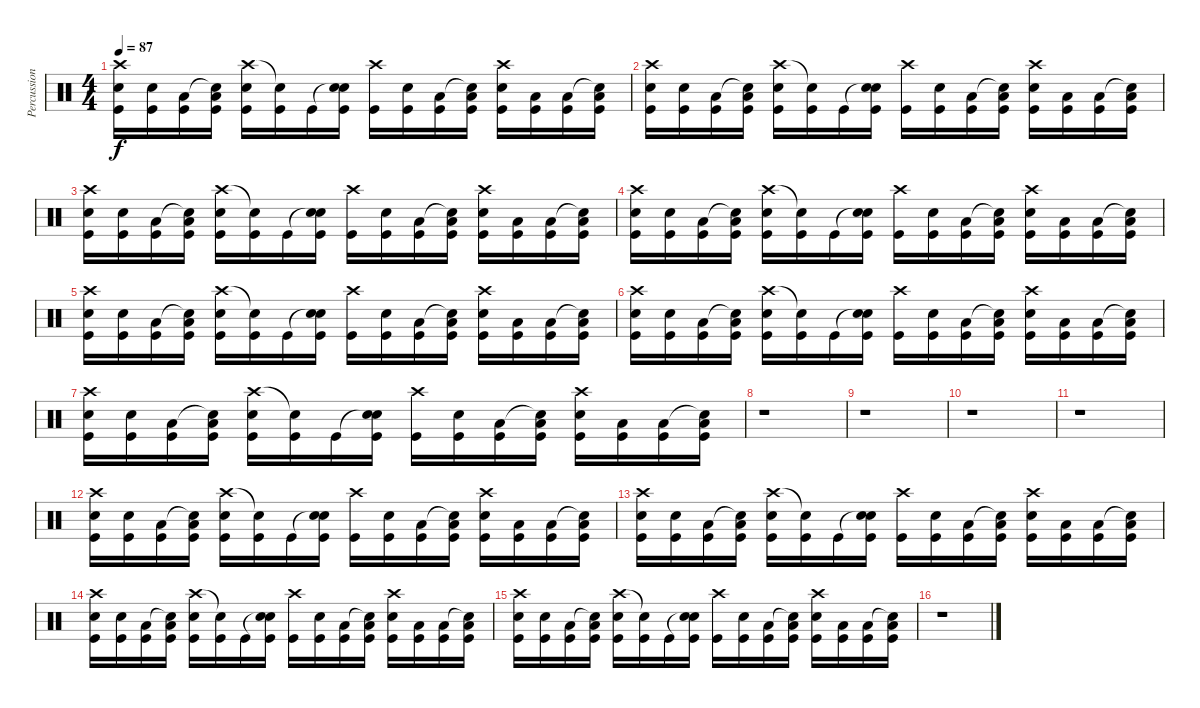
\track ("Percussions" "Percussion") {instrument percussion}
\staff {score}
\articulation defaults
\ts (4 4)
\tempo 87
\clef neutral
\ks c
("Crash high (hit)" "Snare (hit) 2" "Kick (hit)").16{dy f} ("Snare (hit) 2" "Kick (hit)").16 ("Low Floor Tom (hit)" "Kick (hit)").16 ("Snare (hit)"{t} "Low Floor Tom (hit)" "Kick (hit)").16 ("Crash high (hit)" "Snare (hit) 2" "Kick (hit)").16 ("Snare (hit) 2"{t} "Kick (hit)").16 "Kick (hit)".16 ("Snare (hit)"{t} "Snare (hit) 2" "Kick (hit)").16 ("Crash high (hit)" "Kick (hit)").16 ("Snare (hit) 2" "Kick (hit)").16 ("Low Floor Tom (hit)" "Kick (hit)").16 ("Snare (hit)"{t} "Low Floor Tom (hit)" "Kick (hit)").16 ("Crash high (hit)" "Snare (hit) 2" "Kick (hit)").16 ("Low Floor Tom (hit)" "Kick (hit)").16 ("Low Floor Tom (hit)" "Kick (hit)").16 ("Snare (hit)"{t} "Low Floor Tom (hit)" "Kick (hit)").16 |
("Crash high (hit)" "Snare (hit) 2" "Kick (hit)").16 ("Snare (hit) 2" "Kick (hit)").16 ("Low Floor Tom (hit)" "Kick (hit)").16 ("Snare (hit)"{t} "Low Floor Tom (hit)" "Kick (hit)").16 ("Crash high (hit)" "Snare (hit) 2" "Kick (hit)").16 ("Snare (hit) 2"{t} "Kick (hit)").16 "Kick (hit)".16 ("Snare (hit)"{t} "Snare (hit) 2" "Kick (hit)").16 ("Crash high (hit)" "Kick (hit)").16 ("Snare (hit) 2" "Kick (hit)").16 ("Low Floor Tom (hit)" "Kick (hit)").16 ("Snare (hit)"{t} "Low Floor Tom (hit)" "Kick (hit)").16 ("Crash high (hit)" "Snare (hit) 2" "Kick (hit)").16 ("Low Floor Tom (hit)" "Kick (hit)").16 ("Low Floor Tom (hit)" "Kick (hit)").16 ("Snare (hit)"{t} "Low Floor Tom (hit)" "Kick (hit)").16 |
("Crash high (hit)" "Snare (hit) 2" "Kick (hit)").16 ("Snare (hit) 2" "Kick (hit)").16 ("Low Floor Tom (hit)" "Kick (hit)").16 ("Snare (hit)"{t} "Low Floor Tom (hit)" "Kick (hit)").16 ("Crash high (hit)" "Snare (hit) 2" "Kick (hit)").16 ("Snare (hit) 2"{t} "Kick (hit)").16 "Kick (hit)".16 ("Snare (hit)"{t} "Snare (hit) 2" "Kick (hit)").16 ("Crash high (hit)" "Kick (hit)").16 ("Snare (hit) 2" "Kick (hit)").16 ("Low Floor Tom (hit)" "Kick (hit)").16 ("Snare (hit)"{t} "Low Floor Tom (hit)" "Kick (hit)").16 ("Crash high (hit)" "Snare (hit) 2" "Kick (hit)").16 ("Low Floor Tom (hit)" "Kick (hit)").16 ("Low Floor Tom (hit)" "Kick (hit)").16 ("Snare (hit)"{t} "Low Floor Tom (hit)" "Kick (hit)").16 |
("Crash high (hit)" "Snare (hit) 2" "Kick (hit)").16 ("Snare (hit) 2" "Kick (hit)").16 ("Low Floor Tom (hit)" "Kick (hit)").16 ("Snare (hit)"{t} "Low Floor Tom (hit)" "Kick (hit)").16 ("Crash high (hit)" "Snare (hit) 2" "Kick (hit)").16 ("Snare (hit) 2"{t} "Kick (hit)").16 "Kick (hit)".16 ("Snare (hit)"{t} "Snare (hit) 2" "Kick (hit)").16 ("Crash high (hit)" "Kick (hit)").16 ("Snare (hit) 2" "Kick (hit)").16 ("Low Floor Tom (hit)" "Kick (hit)").16 ("Snare (hit)"{t} "Low Floor Tom (hit)" "Kick (hit)").16 ("Crash high (hit)" "Snare (hit) 2" "Kick (hit)").16 ("Low Floor Tom (hit)" "Kick (hit)").16 ("Low Floor Tom (hit)" "Kick (hit)").16 ("Snare (hit)"{t} "Low Floor Tom (hit)" "Kick (hit)").16 |
("Crash high (hit)" "Snare (hit) 2" "Kick (hit)").16 ("Snare (hit) 2" "Kick (hit)").16 ("Low Floor Tom (hit)" "Kick (hit)").16 ("Snare (hit)"{t} "Low Floor Tom (hit)" "Kick (hit)").16 ("Crash high (hit)" "Snare (hit) 2" "Kick (hit)").16 ("Snare (hit) 2"{t} "Kick (hit)").16 "Kick (hit)".16 ("Snare (hit)"{t} "Snare (hit) 2" "Kick (hit)").16 ("Crash high (hit)" "Kick (hit)").16 ("Snare (hit) 2" "Kick (hit)").16 ("Low Floor Tom (hit)" "Kick (hit)").16 ("Snare (hit)"{t} "Low Floor Tom (hit)" "Kick (hit)").16 ("Crash high (hit)" "Snare (hit) 2" "Kick (hit)").16 ("Low Floor Tom (hit)" "Kick (hit)").16 ("Low Floor Tom (hit)" "Kick (hit)").16 ("Snare (hit)"{t} "Low Floor Tom (hit)" "Kick (hit)").16 |
("Crash high (hit)" "Snare (hit) 2" "Kick (hit)").16 ("Snare (hit) 2" "Kick (hit)").16 ("Low Floor Tom (hit)" "Kick (hit)").16 ("Snare (hit)"{t} "Low Floor Tom (hit)" "Kick (hit)").16 ("Crash high (hit)" "Snare (hit) 2" "Kick (hit)").16 ("Snare (hit) 2"{t} "Kick (hit)").16 "Kick (hit)".16 ("Snare (hit)"{t} "Snare (hit) 2" "Kick (hit)").16 ("Crash high (hit)" "Kick (hit)").16 ("Snare (hit) 2" "Kick (hit)").16 ("Low Floor Tom (hit)" "Kick (hit)").16 ("Snare (hit)"{t} "Low Floor Tom (hit)" "Kick (hit)").16 ("Crash high (hit)" "Snare (hit) 2" "Kick (hit)").16 ("Low Floor Tom (hit)" "Kick (hit)").16 ("Low Floor Tom (hit)" "Kick (hit)").16 ("Snare (hit)"{t} "Low Floor Tom (hit)" "Kick (hit)").16 |
("Crash high (hit)" "Snare (hit) 2" "Kick (hit)").16 ("Snare (hit) 2" "Kick (hit)").16 ("Low Floor Tom (hit)" "Kick (hit)").16 ("Snare (hit)"{t} "Low Floor Tom (hit)" "Kick (hit)").16 ("Crash high (hit)" "Snare (hit) 2" "Kick (hit)").16 ("Snare (hit) 2"{t} "Kick (hit)").16 "Kick (hit)".16 ("Snare (hit)"{t} "Snare (hit) 2" "Kick (hit)").16 ("Crash high (hit)" "Kick (hit)").16 ("Snare (hit) 2" "Kick (hit)").16 ("Low Floor Tom (hit)" "Kick (hit)").16 ("Snare (hit)"{t} "Low Floor Tom (hit)" "Kick (hit)").16 ("Crash high (hit)" "Snare (hit) 2" "Kick (hit)").16 ("Low Floor Tom (hit)" "Kick (hit)").16 ("Low Floor Tom (hit)" "Kick (hit)").16 ("Snare (hit)"{t} "Low Floor Tom (hit)" "Kick (hit)").16 |
r.1 |
r.1 |
r.1 |
r.1 |
("Crash high (hit)" "Snare (hit) 2" "Kick (hit)").16 ("Snare (hit) 2" "Kick (hit)").16 ("Low Floor Tom (hit)" "Kick (hit)").16 ("Snare (hit)"{t} "Low Floor Tom (hit)" "Kick (hit)").16 ("Crash high (hit)" "Snare (hit) 2" "Kick (hit)").16 ("Snare (hit) 2"{t} "Kick (hit)").16 "Kick (hit)".16 ("Snare (hit)"{t} "Snare (hit) 2" "Kick (hit)").16 ("Crash high (hit)" "Kick (hit)").16 ("Snare (hit) 2" "Kick (hit)").16 ("Low Floor Tom (hit)" "Kick (hit)").16 ("Snare (hit)"{t} "Low Floor Tom (hit)" "Kick (hit)").16 ("Crash high (hit)" "Snare (hit) 2" "Kick (hit)").16 ("Low Floor Tom (hit)" "Kick (hit)").16 ("Low Floor Tom (hit)" "Kick (hit)").16 ("Snare (hit)"{t} "Low Floor Tom (hit)" "Kick (hit)").16 |
("Crash high (hit)" "Snare (hit) 2" "Kick (hit)").16 ("Snare (hit) 2" "Kick (hit)").16 ("Low Floor Tom (hit)" "Kick (hit)").16 ("Snare (hit)"{t} "Low Floor Tom (hit)" "Kick (hit)").16 ("Crash high (hit)" "Snare (hit) 2" "Kick (hit)").16 ("Snare (hit) 2"{t} "Kick (hit)").16 "Kick (hit)".16 ("Snare (hit)"{t} "Snare (hit) 2" "Kick (hit)").16 ("Crash high (hit)" "Kick (hit)").16 ("Snare (hit) 2" "Kick (hit)").16 ("Low Floor Tom (hit)" "Kick (hit)").16 ("Snare (hit)"{t} "Low Floor Tom (hit)" "Kick (hit)").16 ("Crash high (hit)" "Snare (hit) 2" "Kick (hit)").16 ("Low Floor Tom (hit)" "Kick (hit)").16 ("Low Floor Tom (hit)" "Kick (hit)").16 ("Snare (hit)"{t} "Low Floor Tom (hit)" "Kick (hit)").16 |
("Crash high (hit)" "Snare (hit) 2" "Kick (hit)").16 ("Snare (hit) 2" "Kick (hit)").16 ("Low Floor Tom (hit)" "Kick (hit)").16 ("Snare (hit)"{t} "Low Floor Tom (hit)" "Kick (hit)").16 ("Crash high (hit)" "Snare (hit) 2" "Kick (hit)").16 ("Snare (hit) 2"{t} "Kick (hit)").16 "Kick (hit)".16 ("Snare (hit)"{t} "Snare (hit) 2" "Kick (hit)").16 ("Crash high (hit)" "Kick (hit)").16 ("Snare (hit) 2" "Kick (hit)").16 ("Low Floor Tom (hit)" "Kick (hit)").16 ("Snare (hit)"{t} "Low Floor Tom (hit)" "Kick (hit)").16 ("Crash high (hit)" "Snare (hit) 2" "Kick (hit)").16 ("Low Floor Tom (hit)" "Kick (hit)").16 ("Low Floor Tom (hit)" "Kick (hit)").16 ("Snare (hit)"{t} "Low Floor Tom (hit)" "Kick (hit)").16 |
("Crash high (hit)" "Snare (hit) 2" "Kick (hit)").16 ("Snare (hit) 2" "Kick (hit)").16 ("Low Floor Tom (hit)" "Kick (hit)").16 ("Snare (hit)"{t} "Low Floor Tom (hit)" "Kick (hit)").16 ("Crash high (hit)" "Snare (hit) 2" "Kick (hit)").16 ("Snare (hit) 2"{t} "Kick (hit)").16 "Kick (hit)".16 ("Snare (hit)"{t} "Snare (hit) 2" "Kick (hit)").16 ("Crash high (hit)" "Kick (hit)").16 ("Snare (hit) 2" "Kick (hit)").16 ("Low Floor Tom (hit)" "Kick (hit)").16 ("Snare (hit)"{t} "Low Floor Tom (hit)" "Kick (hit)").16 ("Crash high (hit)" "Snare (hit) 2" "Kick (hit)").16 ("Low Floor Tom (hit)" "Kick (hit)").16 ("Low Floor Tom (hit)" "Kick (hit)").16 ("Snare (hit)"{t} "Low Floor Tom (hit)" "Kick (hit)").16 |
r.1
